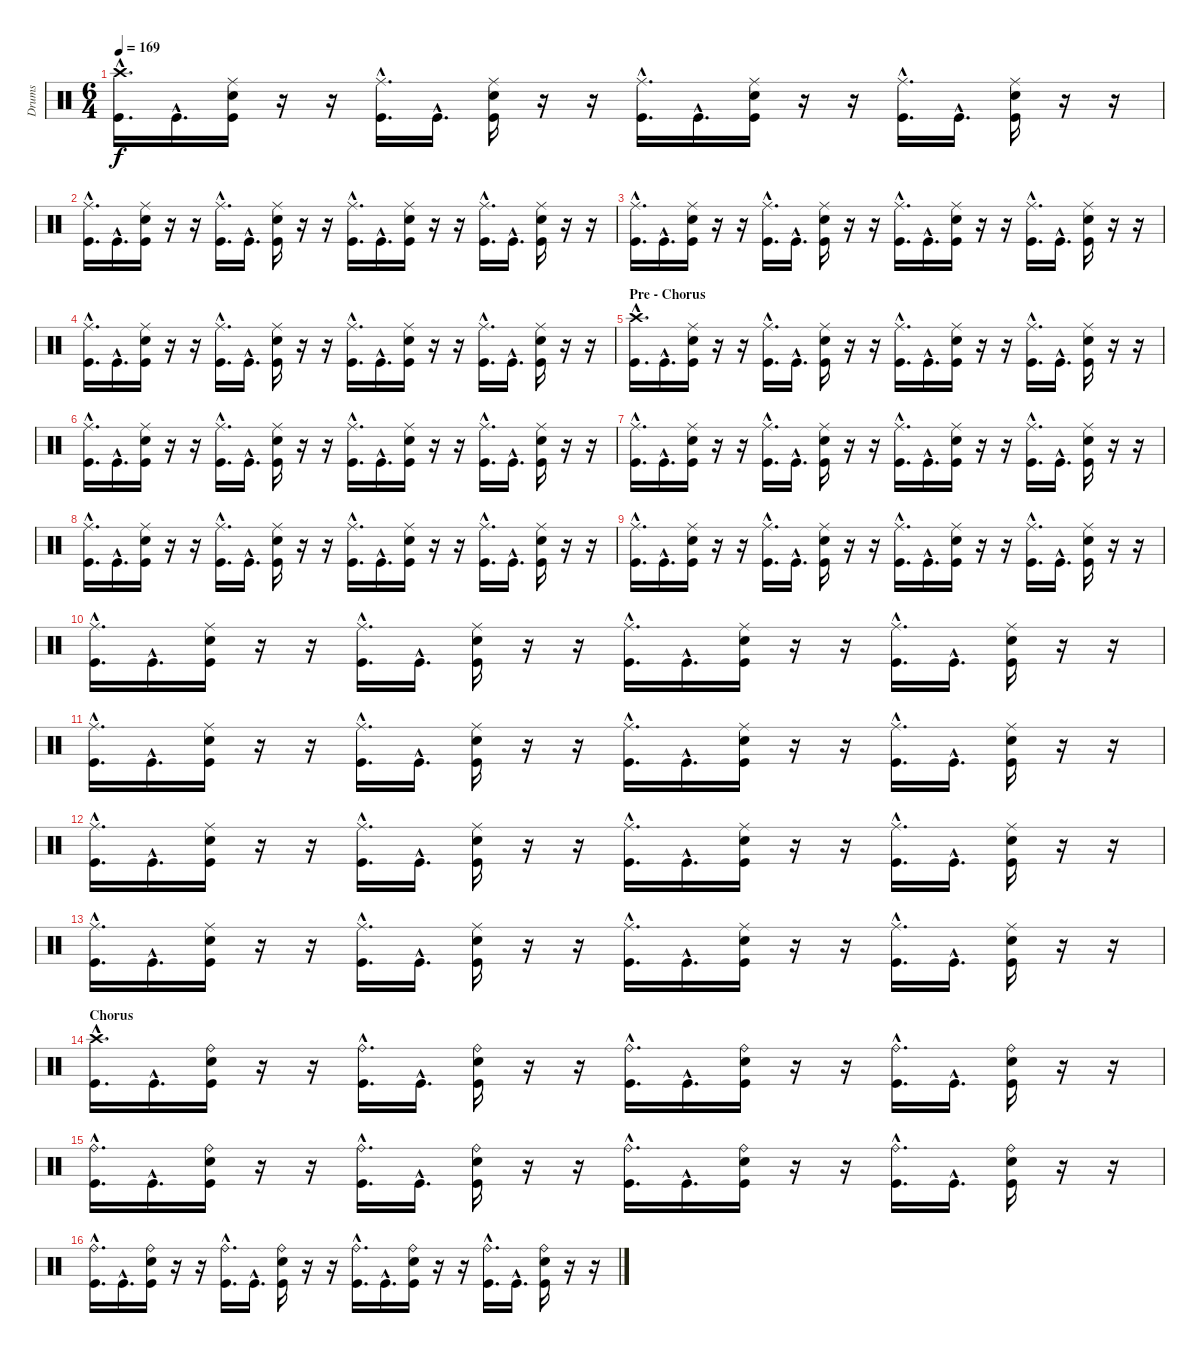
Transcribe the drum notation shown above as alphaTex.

\track ("Drums" "Drums") {instrument percussion}
\staff {score}
\articulation defaults
\ts (6 4)
\tempo 169
\clef neutral
\ks c
("Kick (hit)"{hac} "Crash high (hit)"{hac}).16{d dy f} "Kick (hit)"{hac}.16{d} ("Kick (hit)" "Electric Snare (hit)" "Ride (middle)").16 r.16 r.16 ("Kick (hit)"{hac} "Ride (middle)"{hac}).16{d} "Kick (hit)"{hac}.16{d} ("Kick (hit)" "Electric Snare (hit)" "Ride (middle)").16 r.16 r.16 ("Kick (hit)"{hac} "Ride (middle)"{hac}).16{d} "Kick (hit)"{hac}.16{d} ("Kick (hit)" "Electric Snare (hit)" "Ride (middle)").16 r.16 r.16 ("Kick (hit)"{hac} "Ride (middle)"{hac}).16{d} "Kick (hit)"{hac}.16{d} ("Kick (hit)" "Electric Snare (hit)" "Ride (middle)").16 r.16 r.16 |
("Kick (hit)"{hac} "Ride (middle)"{hac}).16{d} "Kick (hit)"{hac}.16{d} ("Kick (hit)" "Electric Snare (hit)" "Ride (middle)").16 r.16 r.16 ("Kick (hit)"{hac} "Ride (middle)"{hac}).16{d} "Kick (hit)"{hac}.16{d} ("Kick (hit)" "Electric Snare (hit)" "Ride (middle)").16 r.16 r.16 ("Kick (hit)"{hac} "Ride (middle)"{hac}).16{d} "Kick (hit)"{hac}.16{d} ("Kick (hit)" "Electric Snare (hit)" "Ride (middle)").16 r.16 r.16 ("Kick (hit)"{hac} "Ride (middle)"{hac}).16{d} "Kick (hit)"{hac}.16{d} ("Kick (hit)" "Electric Snare (hit)" "Ride (middle)").16 r.16 r.16 |
("Kick (hit)"{hac} "Ride (middle)"{hac}).16{d} "Kick (hit)"{hac}.16{d} ("Kick (hit)" "Electric Snare (hit)" "Ride (middle)").16 r.16 r.16 ("Kick (hit)"{hac} "Ride (middle)"{hac}).16{d} "Kick (hit)"{hac}.16{d} ("Kick (hit)" "Electric Snare (hit)" "Ride (middle)").16 r.16 r.16 ("Kick (hit)"{hac} "Ride (middle)"{hac}).16{d} "Kick (hit)"{hac}.16{d} ("Kick (hit)" "Electric Snare (hit)" "Ride (middle)").16 r.16 r.16 ("Kick (hit)"{hac} "Ride (middle)"{hac}).16{d} "Kick (hit)"{hac}.16{d} ("Kick (hit)" "Electric Snare (hit)" "Ride (middle)").16 r.16 r.16 |
("Kick (hit)"{hac} "Ride (middle)"{hac}).16{d} "Kick (hit)"{hac}.16{d} ("Kick (hit)" "Electric Snare (hit)" "Ride (middle)").16 r.16 r.16 ("Kick (hit)"{hac} "Ride (middle)"{hac}).16{d} "Kick (hit)"{hac}.16{d} ("Kick (hit)" "Electric Snare (hit)" "Ride (middle)").16 r.16 r.16 ("Kick (hit)"{hac} "Ride (middle)"{hac}).16{d} "Kick (hit)"{hac}.16{d} ("Kick (hit)" "Electric Snare (hit)" "Ride (middle)").16 r.16 r.16 ("Kick (hit)"{hac} "Ride (middle)"{hac}).16{d} "Kick (hit)"{hac}.16{d} ("Kick (hit)" "Electric Snare (hit)" "Ride (middle)").16 r.16 r.16 |
\section ("" "Pre - Chorus")
("Kick (hit)"{hac} "Crash high (hit)"{hac}).16{d} "Kick (hit)"{hac}.16{d} ("Kick (hit)" "Electric Snare (hit)" "Ride (middle)").16 r.16 r.16 ("Kick (hit)"{hac} "Ride (middle)"{hac}).16{d} "Kick (hit)"{hac}.16{d} ("Kick (hit)" "Electric Snare (hit)" "Ride (middle)").16 r.16 r.16 ("Kick (hit)"{hac} "Ride (middle)"{hac}).16{d} "Kick (hit)"{hac}.16{d} ("Kick (hit)" "Electric Snare (hit)" "Ride (middle)").16 r.16 r.16 ("Kick (hit)"{hac} "Ride (middle)"{hac}).16{d} "Kick (hit)"{hac}.16{d} ("Kick (hit)" "Electric Snare (hit)" "Ride (middle)").16 r.16 r.16 |
("Kick (hit)"{hac} "Ride (middle)"{hac}).16{d} "Kick (hit)"{hac}.16{d} ("Kick (hit)" "Electric Snare (hit)" "Ride (middle)").16 r.16 r.16 ("Kick (hit)"{hac} "Ride (middle)"{hac}).16{d} "Kick (hit)"{hac}.16{d} ("Kick (hit)" "Electric Snare (hit)" "Ride (middle)").16 r.16 r.16 ("Kick (hit)"{hac} "Ride (middle)"{hac}).16{d} "Kick (hit)"{hac}.16{d} ("Kick (hit)" "Electric Snare (hit)" "Ride (middle)").16 r.16 r.16 ("Kick (hit)"{hac} "Ride (middle)"{hac}).16{d} "Kick (hit)"{hac}.16{d} ("Kick (hit)" "Electric Snare (hit)" "Ride (middle)").16 r.16 r.16 |
("Kick (hit)"{hac} "Ride (middle)"{hac}).16{d} "Kick (hit)"{hac}.16{d} ("Kick (hit)" "Electric Snare (hit)" "Ride (middle)").16 r.16 r.16 ("Kick (hit)"{hac} "Ride (middle)"{hac}).16{d} "Kick (hit)"{hac}.16{d} ("Kick (hit)" "Electric Snare (hit)" "Ride (middle)").16 r.16 r.16 ("Kick (hit)"{hac} "Ride (middle)"{hac}).16{d} "Kick (hit)"{hac}.16{d} ("Kick (hit)" "Electric Snare (hit)" "Ride (middle)").16 r.16 r.16 ("Kick (hit)"{hac} "Ride (middle)"{hac}).16{d} "Kick (hit)"{hac}.16{d} ("Kick (hit)" "Electric Snare (hit)" "Ride (middle)").16 r.16 r.16 |
("Kick (hit)"{hac} "Ride (middle)"{hac}).16{d} "Kick (hit)"{hac}.16{d} ("Kick (hit)" "Electric Snare (hit)" "Ride (middle)").16 r.16 r.16 ("Kick (hit)"{hac} "Ride (middle)"{hac}).16{d} "Kick (hit)"{hac}.16{d} ("Kick (hit)" "Electric Snare (hit)" "Ride (middle)").16 r.16 r.16 ("Kick (hit)"{hac} "Ride (middle)"{hac}).16{d} "Kick (hit)"{hac}.16{d} ("Kick (hit)" "Electric Snare (hit)" "Ride (middle)").16 r.16 r.16 ("Kick (hit)"{hac} "Ride (middle)"{hac}).16{d} "Kick (hit)"{hac}.16{d} ("Kick (hit)" "Electric Snare (hit)" "Ride (middle)").16 r.16 r.16 |
("Kick (hit)"{hac} "Ride (middle)"{hac}).16{d} "Kick (hit)"{hac}.16{d} ("Kick (hit)" "Electric Snare (hit)" "Ride (middle)").16 r.16 r.16 ("Kick (hit)"{hac} "Ride (middle)"{hac}).16{d} "Kick (hit)"{hac}.16{d} ("Kick (hit)" "Electric Snare (hit)" "Ride (middle)").16 r.16 r.16 ("Kick (hit)"{hac} "Ride (middle)"{hac}).16{d} "Kick (hit)"{hac}.16{d} ("Kick (hit)" "Electric Snare (hit)" "Ride (middle)").16 r.16 r.16 ("Kick (hit)"{hac} "Ride (middle)"{hac}).16{d} "Kick (hit)"{hac}.16{d} ("Kick (hit)" "Electric Snare (hit)" "Ride (middle)").16 r.16 r.16 |
("Kick (hit)"{hac} "Ride (middle)"{hac}).16{d} "Kick (hit)"{hac}.16{d} ("Kick (hit)" "Electric Snare (hit)" "Ride (middle)").16 r.16 r.16 ("Kick (hit)"{hac} "Ride (middle)"{hac}).16{d} "Kick (hit)"{hac}.16{d} ("Kick (hit)" "Electric Snare (hit)" "Ride (middle)").16 r.16 r.16 ("Kick (hit)"{hac} "Ride (middle)"{hac}).16{d} "Kick (hit)"{hac}.16{d} ("Kick (hit)" "Electric Snare (hit)" "Ride (middle)").16 r.16 r.16 ("Kick (hit)"{hac} "Ride (middle)"{hac}).16{d} "Kick (hit)"{hac}.16{d} ("Kick (hit)" "Electric Snare (hit)" "Ride (middle)").16 r.16 r.16 |
("Kick (hit)"{hac} "Ride (middle)"{hac}).16{d} "Kick (hit)"{hac}.16{d} ("Kick (hit)" "Electric Snare (hit)" "Ride (middle)").16 r.16 r.16 ("Kick (hit)"{hac} "Ride (middle)"{hac}).16{d} "Kick (hit)"{hac}.16{d} ("Kick (hit)" "Electric Snare (hit)" "Ride (middle)").16 r.16 r.16 ("Kick (hit)"{hac} "Ride (middle)"{hac}).16{d} "Kick (hit)"{hac}.16{d} ("Kick (hit)" "Electric Snare (hit)" "Ride (middle)").16 r.16 r.16 ("Kick (hit)"{hac} "Ride (middle)"{hac}).16{d} "Kick (hit)"{hac}.16{d} ("Kick (hit)" "Electric Snare (hit)" "Ride (middle)").16 r.16 r.16 |
("Kick (hit)"{hac} "Ride (middle)"{hac}).16{d} "Kick (hit)"{hac}.16{d} ("Kick (hit)" "Electric Snare (hit)" "Ride (middle)").16 r.16 r.16 ("Kick (hit)"{hac} "Ride (middle)"{hac}).16{d} "Kick (hit)"{hac}.16{d} ("Kick (hit)" "Electric Snare (hit)" "Ride (middle)").16 r.16 r.16 ("Kick (hit)"{hac} "Ride (middle)"{hac}).16{d} "Kick (hit)"{hac}.16{d} ("Kick (hit)" "Electric Snare (hit)" "Ride (middle)").16 r.16 r.16 ("Kick (hit)"{hac} "Ride (middle)"{hac}).16{d} "Kick (hit)"{hac}.16{d} ("Kick (hit)" "Electric Snare (hit)" "Ride (middle)").16 r.16 r.16 |
("Kick (hit)"{hac} "Ride (middle)"{hac}).16{d} "Kick (hit)"{hac}.16{d} ("Kick (hit)" "Electric Snare (hit)" "Ride (middle)").16 r.16 r.16 ("Kick (hit)"{hac} "Ride (middle)"{hac}).16{d} "Kick (hit)"{hac}.16{d} ("Kick (hit)" "Electric Snare (hit)" "Ride (middle)").16 r.16 r.16 ("Kick (hit)"{hac} "Ride (middle)"{hac}).16{d} "Kick (hit)"{hac}.16{d} ("Kick (hit)" "Electric Snare (hit)" "Ride (middle)").16 r.16 r.16 ("Kick (hit)"{hac} "Ride (middle)"{hac}).16{d} "Kick (hit)"{hac}.16{d} ("Kick (hit)" "Electric Snare (hit)" "Ride (middle)").16 r.16 r.16 |
\section ("" "Chorus")
("Kick (hit)"{hac} "Crash high (hit)"{hac}).16{d} "Kick (hit)"{hac}.16{d} ("Kick (hit)" "Electric Snare (hit)" "Ride (bell)").16 r.16 r.16 ("Kick (hit)"{hac} "Ride (bell)"{hac}).16{d} "Kick (hit)"{hac}.16{d} ("Kick (hit)" "Electric Snare (hit)" "Ride (bell)").16 r.16 r.16 ("Kick (hit)"{hac} "Ride (bell)"{hac}).16{d} "Kick (hit)"{hac}.16{d} ("Kick (hit)" "Electric Snare (hit)" "Ride (bell)").16 r.16 r.16 ("Kick (hit)"{hac} "Ride (bell)"{hac}).16{d} "Kick (hit)"{hac}.16{d} ("Kick (hit)" "Electric Snare (hit)" "Ride (bell)").16 r.16 r.16 |
("Kick (hit)"{hac} "Ride (bell)"{hac}).16{d} "Kick (hit)"{hac}.16{d} ("Kick (hit)" "Electric Snare (hit)" "Ride (bell)").16 r.16 r.16 ("Kick (hit)"{hac} "Ride (bell)"{hac}).16{d} "Kick (hit)"{hac}.16{d} ("Kick (hit)" "Electric Snare (hit)" "Ride (bell)").16 r.16 r.16 ("Kick (hit)"{hac} "Ride (bell)"{hac}).16{d} "Kick (hit)"{hac}.16{d} ("Kick (hit)" "Electric Snare (hit)" "Ride (bell)").16 r.16 r.16 ("Kick (hit)"{hac} "Ride (bell)"{hac}).16{d} "Kick (hit)"{hac}.16{d} ("Kick (hit)" "Electric Snare (hit)" "Ride (bell)").16 r.16 r.16 |
("Kick (hit)"{hac} "Ride (bell)"{hac}).16{d} "Kick (hit)"{hac}.16{d} ("Kick (hit)" "Electric Snare (hit)" "Ride (bell)").16 r.16 r.16 ("Kick (hit)"{hac} "Ride (bell)"{hac}).16{d} "Kick (hit)"{hac}.16{d} ("Kick (hit)" "Electric Snare (hit)" "Ride (bell)").16 r.16 r.16 ("Kick (hit)"{hac} "Ride (bell)"{hac}).16{d} "Kick (hit)"{hac}.16{d} ("Kick (hit)" "Electric Snare (hit)" "Ride (bell)").16 r.16 r.16 ("Kick (hit)"{hac} "Ride (bell)"{hac}).16{d} "Kick (hit)"{hac}.16{d} ("Kick (hit)" "Electric Snare (hit)" "Ride (bell)").16 r.16 r.16
